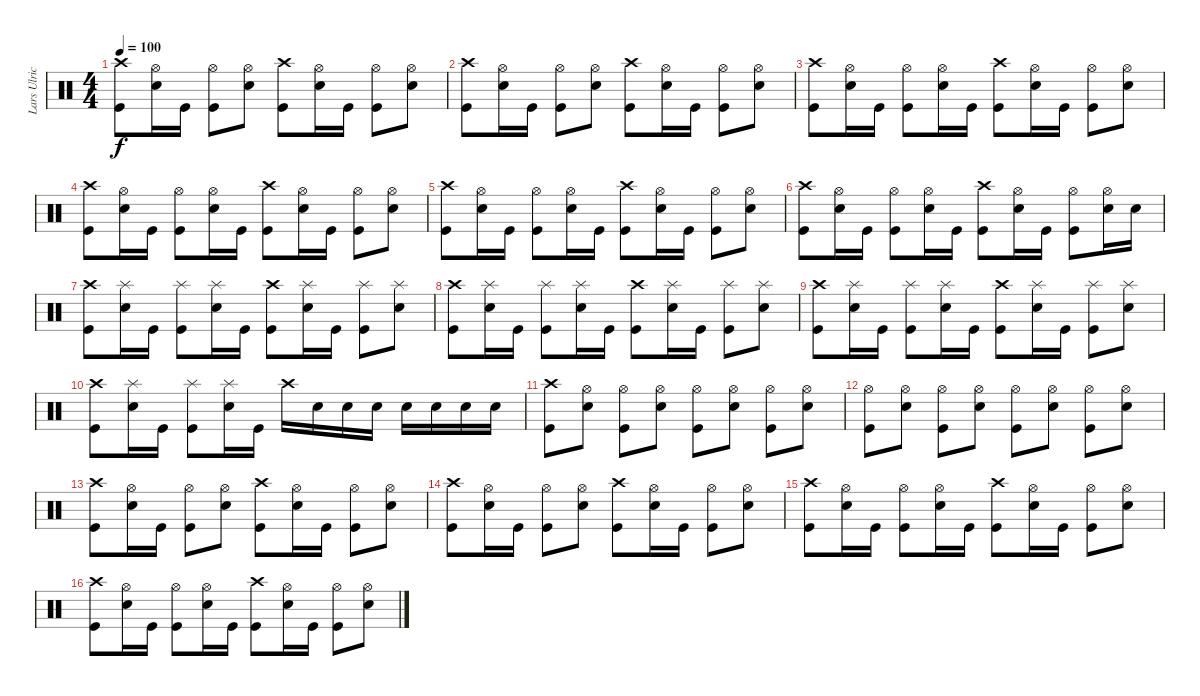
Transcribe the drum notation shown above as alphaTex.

\track ("Lars Ulrich Drums" "Lars Ulric") {instrument percussion}
\staff {score}
\articulation defaults
\ts (4 4)
\tempo 100
\clef neutral
\ks c
("Crash high (hit)" "Kick (hit)").8{dy f} ("Hi-Hat (open)" "Electric Snare (hit)").16 "Kick (hit)".16 ("Hi-Hat (open)" "Kick (hit)").8 ("Hi-Hat (open)" "Electric Snare (hit)").8 ("Crash high (hit)" "Kick (hit)").8 ("Hi-Hat (open)" "Electric Snare (hit)").16 "Kick (hit)".16 ("Hi-Hat (open)" "Kick (hit)").8 ("Hi-Hat (open)" "Electric Snare (hit)").8 |
("Crash high (hit)" "Kick (hit)").8 ("Hi-Hat (open)" "Electric Snare (hit)").16 "Kick (hit)".16 ("Hi-Hat (open)" "Kick (hit)").8 ("Hi-Hat (open)" "Electric Snare (hit)").8 ("Crash high (hit)" "Kick (hit)").8 ("Hi-Hat (open)" "Electric Snare (hit)").16 "Kick (hit)".16 ("Hi-Hat (open)" "Kick (hit)").8 ("Hi-Hat (open)" "Electric Snare (hit)").8 |
("Crash high (hit)" "Kick (hit)").8 ("Hi-Hat (open)" "Electric Snare (hit)").16 "Kick (hit)".16 ("Hi-Hat (open)" "Kick (hit)").8 ("Hi-Hat (open)" "Electric Snare (hit)").16 "Kick (hit)".16 ("Crash high (hit)" "Kick (hit)").8 ("Hi-Hat (open)" "Electric Snare (hit)").16 "Kick (hit)".16 ("Hi-Hat (open)" "Kick (hit)").8 ("Hi-Hat (open)" "Electric Snare (hit)").8 |
("Crash high (hit)" "Kick (hit)").8 ("Hi-Hat (open)" "Electric Snare (hit)").16 "Kick (hit)".16 ("Hi-Hat (open)" "Kick (hit)").8 ("Hi-Hat (open)" "Electric Snare (hit)").16 "Kick (hit)".16 ("Crash high (hit)" "Kick (hit)").8 ("Hi-Hat (open)" "Electric Snare (hit)").16 "Kick (hit)".16 ("Hi-Hat (open)" "Kick (hit)").8 ("Hi-Hat (open)" "Electric Snare (hit)").8 |
("Crash high (hit)" "Kick (hit)").8 ("Hi-Hat (open)" "Electric Snare (hit)").16 "Kick (hit)".16 ("Hi-Hat (open)" "Kick (hit)").8 ("Hi-Hat (open)" "Electric Snare (hit)").16 "Kick (hit)".16 ("Crash high (hit)" "Kick (hit)").8 ("Hi-Hat (open)" "Electric Snare (hit)").16 "Kick (hit)".16 ("Hi-Hat (open)" "Kick (hit)").8 ("Hi-Hat (open)" "Electric Snare (hit)").8 |
("Crash high (hit)" "Kick (hit)").8 ("Hi-Hat (open)" "Electric Snare (hit)").16 "Kick (hit)".16 ("Hi-Hat (open)" "Kick (hit)").8 ("Hi-Hat (open)" "Electric Snare (hit)").16 "Kick (hit)".16 ("Crash high (hit)" "Kick (hit)").8 ("Hi-Hat (open)" "Electric Snare (hit)").16 "Kick (hit)".16 ("Hi-Hat (open)" "Kick (hit)").8 ("Hi-Hat (open)" "Electric Snare (hit)").16 "Electric Snare (hit)".16 |
("Crash high (hit)" "Kick (hit)").8 ("Splash (hit)" "Electric Snare (hit)").16 "Kick (hit)".16 ("Splash (hit)" "Kick (hit)").8 ("Splash (hit)" "Electric Snare (hit)").16 "Kick (hit)".16 ("Crash high (hit)" "Kick (hit)").8 ("Splash (hit)" "Electric Snare (hit)").16 "Kick (hit)".16 ("Splash (hit)" "Kick (hit)").8 ("Splash (hit)" "Electric Snare (hit)").8 |
("Crash high (hit)" "Kick (hit)").8 ("Splash (hit)" "Electric Snare (hit)").16 "Kick (hit)".16 ("Splash (hit)" "Kick (hit)").8 ("Splash (hit)" "Electric Snare (hit)").16 "Kick (hit)".16 ("Crash high (hit)" "Kick (hit)").8 ("Splash (hit)" "Electric Snare (hit)").16 "Kick (hit)".16 ("Splash (hit)" "Kick (hit)").8 ("Splash (hit)" "Electric Snare (hit)").8 |
("Crash high (hit)" "Kick (hit)").8 ("Splash (hit)" "Electric Snare (hit)").16 "Kick (hit)".16 ("Splash (hit)" "Kick (hit)").8 ("Splash (hit)" "Electric Snare (hit)").16 "Kick (hit)".16 ("Crash high (hit)" "Kick (hit)").8 ("Splash (hit)" "Electric Snare (hit)").16 "Kick (hit)".16 ("Splash (hit)" "Kick (hit)").8 ("Splash (hit)" "Electric Snare (hit)").8 |
("Crash high (hit)" "Kick (hit)").8 ("Splash (hit)" "Electric Snare (hit)").16 "Kick (hit)".16 ("Splash (hit)" "Kick (hit)").8 ("Splash (hit)" "Electric Snare (hit)").16 "Kick (hit)".16 "Crash high (hit)".16 "Electric Snare (hit)".16 "Electric Snare (hit)".16 "Electric Snare (hit)".16 "Electric Snare (hit)".16 "Electric Snare (hit)".16 "Electric Snare (hit)".16 "Electric Snare (hit)".16 |
("Crash high (hit)" "Kick (hit)").8 ("Hi-Hat (open)" "Electric Snare (hit)").8 ("Hi-Hat (open)" "Kick (hit)").8 ("Hi-Hat (open)" "Electric Snare (hit)").8 ("Hi-Hat (open)" "Kick (hit)").8 ("Hi-Hat (open)" "Electric Snare (hit)").8 ("Hi-Hat (open)" "Kick (hit)").8 ("Hi-Hat (open)" "Electric Snare (hit)").8 |
("Hi-Hat (open)" "Kick (hit)").8 ("Hi-Hat (open)" "Electric Snare (hit)").8 ("Hi-Hat (open)" "Kick (hit)").8 ("Hi-Hat (open)" "Electric Snare (hit)").8 ("Hi-Hat (open)" "Kick (hit)").8 ("Hi-Hat (open)" "Electric Snare (hit)").8 ("Hi-Hat (open)" "Kick (hit)").8 ("Hi-Hat (open)" "Electric Snare (hit)").8 |
("Crash high (hit)" "Kick (hit)").8 ("Hi-Hat (open)" "Electric Snare (hit)").16 "Kick (hit)".16 ("Hi-Hat (open)" "Kick (hit)").8 ("Hi-Hat (open)" "Electric Snare (hit)").8 ("Crash high (hit)" "Kick (hit)").8 ("Hi-Hat (open)" "Electric Snare (hit)").16 "Kick (hit)".16 ("Hi-Hat (open)" "Kick (hit)").8 ("Hi-Hat (open)" "Electric Snare (hit)").8 |
("Crash high (hit)" "Kick (hit)").8 ("Hi-Hat (open)" "Electric Snare (hit)").16 "Kick (hit)".16 ("Hi-Hat (open)" "Kick (hit)").8 ("Hi-Hat (open)" "Electric Snare (hit)").8 ("Crash high (hit)" "Kick (hit)").8 ("Hi-Hat (open)" "Electric Snare (hit)").16 "Kick (hit)".16 ("Hi-Hat (open)" "Kick (hit)").8 ("Hi-Hat (open)" "Electric Snare (hit)").8 |
("Crash high (hit)" "Kick (hit)").8 ("Hi-Hat (open)" "Electric Snare (hit)").16 "Kick (hit)".16 ("Hi-Hat (open)" "Kick (hit)").8 ("Hi-Hat (open)" "Electric Snare (hit)").16 "Kick (hit)".16 ("Crash high (hit)" "Kick (hit)").8 ("Hi-Hat (open)" "Electric Snare (hit)").16 "Kick (hit)".16 ("Hi-Hat (open)" "Kick (hit)").8 ("Hi-Hat (open)" "Electric Snare (hit)").8 |
("Crash high (hit)" "Kick (hit)").8 ("Hi-Hat (open)" "Electric Snare (hit)").16 "Kick (hit)".16 ("Hi-Hat (open)" "Kick (hit)").8 ("Hi-Hat (open)" "Electric Snare (hit)").16 "Kick (hit)".16 ("Crash high (hit)" "Kick (hit)").8 ("Hi-Hat (open)" "Electric Snare (hit)").16 "Kick (hit)".16 ("Hi-Hat (open)" "Kick (hit)").8 ("Hi-Hat (open)" "Electric Snare (hit)").8
